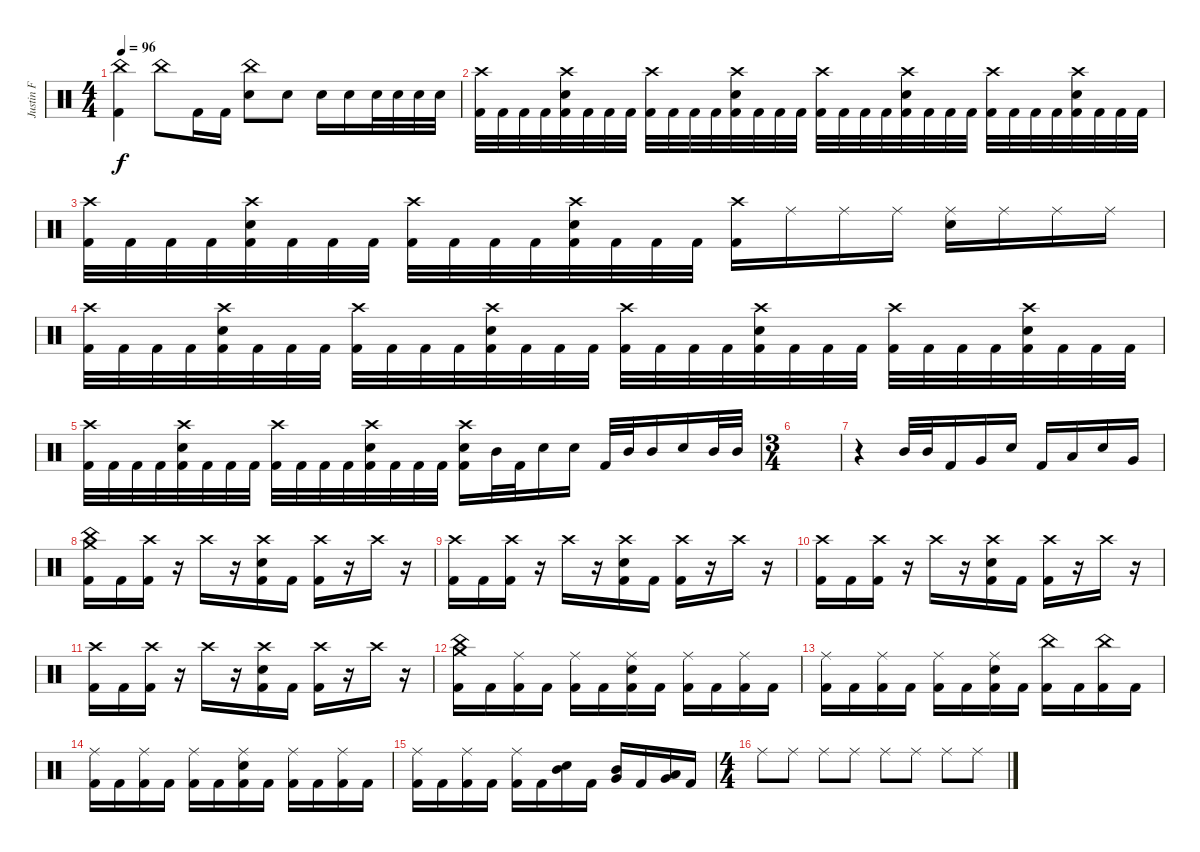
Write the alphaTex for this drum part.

\track ("Justin F" "Justin F") {instrument percussion}
\staff {score}
\articulation defaults
\ts (4 4)
\tempo 96
\clef neutral
\ks c
("Kick (hit) 2" "China (hit)").4{dy f} "China (hit)".8 "Kick (hit) 2".16 "Kick (hit) 2".16 ("China (hit)" "Electric Snare (hit)").8 "Electric Snare (hit)".8 "Electric Snare (hit)".16 "Electric Snare (hit)".16 "Electric Snare (hit)".32 "Electric Snare (hit)".32 "Electric Snare (hit)".32 "Electric Snare (hit)".32 |
("Kick (hit) 2" "Crash high (hit)").32 "Kick (hit) 2".32 "Kick (hit) 2".32 "Kick (hit) 2".32 ("Kick (hit) 2" "Crash high (hit)" "Electric Snare (hit)").32 "Kick (hit) 2".32 "Kick (hit) 2".32 "Kick (hit) 2".32 ("Kick (hit) 2" "Crash high (hit)").32 "Kick (hit) 2".32 "Kick (hit) 2".32 "Kick (hit) 2".32 ("Kick (hit) 2" "Crash high (hit)" "Electric Snare (hit)").32 "Kick (hit) 2".32 "Kick (hit) 2".32 "Kick (hit) 2".32 ("Kick (hit) 2" "Crash high (hit)").32 "Kick (hit) 2".32 "Kick (hit) 2".32 "Kick (hit) 2".32 ("Kick (hit) 2" "Crash high (hit)" "Electric Snare (hit)").32 "Kick (hit) 2".32 "Kick (hit) 2".32 "Kick (hit) 2".32 ("Kick (hit) 2" "Crash high (hit)").32 "Kick (hit) 2".32 "Kick (hit) 2".32 "Kick (hit) 2".32 ("Kick (hit) 2" "Crash high (hit)" "Electric Snare (hit)").32 "Kick (hit) 2".32 "Kick (hit) 2".32 "Kick (hit) 2".32 |
("Kick (hit) 2" "Crash high (hit)").32 "Kick (hit) 2".32 "Kick (hit) 2".32 "Kick (hit) 2".32 ("Kick (hit) 2" "Crash high (hit)" "Electric Snare (hit)").32 "Kick (hit) 2".32 "Kick (hit) 2".32 "Kick (hit) 2".32 ("Kick (hit) 2" "Crash high (hit)").32 "Kick (hit) 2".32 "Kick (hit) 2".32 "Kick (hit) 2".32 ("Kick (hit) 2" "Crash high (hit)" "Electric Snare (hit)").32 "Kick (hit) 2".32 "Kick (hit) 2".32 "Kick (hit) 2".32 ("Kick (hit) 2" "Crash high (hit)").16 "Ride (middle)".16 "Ride (middle)".16 "Ride (middle)".16 ("Ride (middle)" "Electric Snare (hit)").16 "Ride (middle)".16 "Ride (middle)".16 "Ride (middle)".16 |
("Kick (hit) 2" "Crash high (hit)").32 "Kick (hit) 2".32 "Kick (hit) 2".32 "Kick (hit) 2".32 ("Kick (hit) 2" "Crash high (hit)" "Electric Snare (hit)").32 "Kick (hit) 2".32 "Kick (hit) 2".32 "Kick (hit) 2".32 ("Kick (hit) 2" "Crash high (hit)").32 "Kick (hit) 2".32 "Kick (hit) 2".32 "Kick (hit) 2".32 ("Kick (hit) 2" "Crash high (hit)" "Electric Snare (hit)").32 "Kick (hit) 2".32 "Kick (hit) 2".32 "Kick (hit) 2".32 ("Kick (hit) 2" "Crash high (hit)").32 "Kick (hit) 2".32 "Kick (hit) 2".32 "Kick (hit) 2".32 ("Kick (hit) 2" "Crash high (hit)" "Electric Snare (hit)").32 "Kick (hit) 2".32 "Kick (hit) 2".32 "Kick (hit) 2".32 ("Kick (hit) 2" "Crash high (hit)").32 "Kick (hit) 2".32 "Kick (hit) 2".32 "Kick (hit) 2".32 ("Kick (hit) 2" "Crash high (hit)" "Electric Snare (hit)").32 "Kick (hit) 2".32 "Kick (hit) 2".32 "Kick (hit) 2".32 |
("Kick (hit) 2" "Crash high (hit)").32 "Kick (hit) 2".32 "Kick (hit) 2".32 "Kick (hit) 2".32 ("Kick (hit) 2" "Crash high (hit)" "Electric Snare (hit)").32 "Kick (hit) 2".32 "Kick (hit) 2".32 "Kick (hit) 2".32 ("Kick (hit) 2" "Crash high (hit)").32 "Kick (hit) 2".32 "Kick (hit) 2".32 "Kick (hit) 2".32 ("Kick (hit) 2" "Crash high (hit)" "Electric Snare (hit)").32 "Kick (hit) 2".32 "Kick (hit) 2".32 "Kick (hit) 2".32 ("Kick (hit) 2" "Crash high (hit)" "Electric Snare (hit)").16 "Mid Tom (hit)".32 "Kick (hit) 2".32 "Electric Snare (hit)".16 "Electric Snare (hit)".16 "Kick (hit) 2".32 "Mid Tom (hit)".32 "Mid Tom (hit)".16 "Electric Snare (hit)".16 "Mid Tom (hit)".32 "Mid Tom (hit)".32 |
\ts (3 4)
|
r.4 "Mid Tom (hit)".32 "Mid Tom (hit)".32 "Kick (hit) 2".16 "Very Low Tom (hit)".16 "Electric Snare (hit)".16 "Kick (hit) 2".16 "Low Floor Tom (hit)".16 "Electric Snare (hit)".16 "Very Low Tom (hit)".16 |
("Kick (hit) 2" "Crash medium (hit)" "China (hit)").16 "Kick (hit) 2".16 ("Kick (hit) 2" "Crash high (hit)").16 r.16 "Crash high (hit)".16 r.16 ("Kick (hit) 2" "Crash high (hit)" "Electric Snare (hit)").16 "Kick (hit) 2".16 ("Kick (hit) 2" "Crash high (hit)").16 r.16 "Crash high (hit)".16 r.16 |
("Kick (hit) 2" "Crash high (hit)").16 "Kick (hit) 2".16 ("Kick (hit) 2" "Crash high (hit)").16 r.16 "Crash high (hit)".16 r.16 ("Kick (hit) 2" "Crash high (hit)" "Electric Snare (hit)").16 "Kick (hit) 2".16 ("Kick (hit) 2" "Crash high (hit)").16 r.16 "Crash high (hit)".16 r.16 |
("Kick (hit) 2" "Crash high (hit)").16 "Kick (hit) 2".16 ("Kick (hit) 2" "Crash high (hit)").16 r.16 "Crash high (hit)".16 r.16 ("Kick (hit) 2" "Crash high (hit)" "Electric Snare (hit)").16 "Kick (hit) 2".16 ("Kick (hit) 2" "Crash high (hit)").16 r.16 "Crash high (hit)".16 r.16 |
("Kick (hit) 2" "Crash high (hit)").16 "Kick (hit) 2".16 ("Kick (hit) 2" "Crash high (hit)").16 r.16 "Crash high (hit)".16 r.16 ("Kick (hit) 2" "Crash high (hit)" "Electric Snare (hit)").16 "Kick (hit) 2".16 ("Kick (hit) 2" "Crash high (hit)").16 r.16 "Crash high (hit)".16 r.16 |
("Kick (hit) 2" "Crash medium (hit)" "China (hit)").16 "Kick (hit) 2".16 ("Kick (hit) 2" "Ride (middle)").16 "Kick (hit) 2".16 ("Kick (hit) 2" "Ride (middle)").16 "Kick (hit) 2".16 ("Kick (hit) 2" "Ride (middle)" "Electric Snare (hit)").16 "Kick (hit) 2".16 ("Kick (hit) 2" "Ride (middle)").16 "Kick (hit) 2".16 ("Kick (hit) 2" "Ride (middle)").16 "Kick (hit) 2".16 |
("Kick (hit) 2" "Ride (middle)").16 "Kick (hit) 2".16 ("Kick (hit) 2" "Ride (middle)").16 "Kick (hit) 2".16 ("Kick (hit) 2" "Ride (middle)").16 "Kick (hit) 2".16 ("Kick (hit) 2" "Ride (middle)" "Electric Snare (hit)").16 "Kick (hit) 2".16 ("Kick (hit) 2" "China (hit)").16 "Kick (hit) 2".16 ("Kick (hit) 2" "China (hit)").16 "Kick (hit) 2".16 |
("Kick (hit) 2" "Ride (middle)").16 "Kick (hit) 2".16 ("Kick (hit) 2" "Ride (middle)").16 "Kick (hit) 2".16 ("Kick (hit) 2" "Ride (middle)").16 "Kick (hit) 2".16 ("Kick (hit) 2" "Ride (middle)" "Electric Snare (hit)").16 "Kick (hit) 2".16 ("Kick (hit) 2" "Ride (middle)").16 "Kick (hit) 2".16 ("Kick (hit) 2" "Ride (middle)").16 "Kick (hit) 2".16 |
("Kick (hit) 2" "Ride (middle)").16 "Kick (hit) 2".16 ("Kick (hit) 2" "Ride (middle)").16 "Kick (hit) 2".16 ("Kick (hit) 2" "Ride (middle)").16 "Kick (hit) 2".16 ("Mid Tom (hit)" "Electric Snare (hit)").16 "Kick (hit) 2".16 ("Mid Tom (hit)" "Very Low Tom (hit)").16 "Kick (hit) 2".16 ("Very Low Tom (hit)" "Low Floor Tom (hit)").16 "Kick (hit) 2".16 |
\ts (4 4)
"Ride (middle)".8 "Ride (middle)".8 "Ride (middle)".8 "Ride (middle)".8 "Ride (middle)".8 "Ride (middle)".8 "Ride (middle)".8 "Ride (middle)".8
